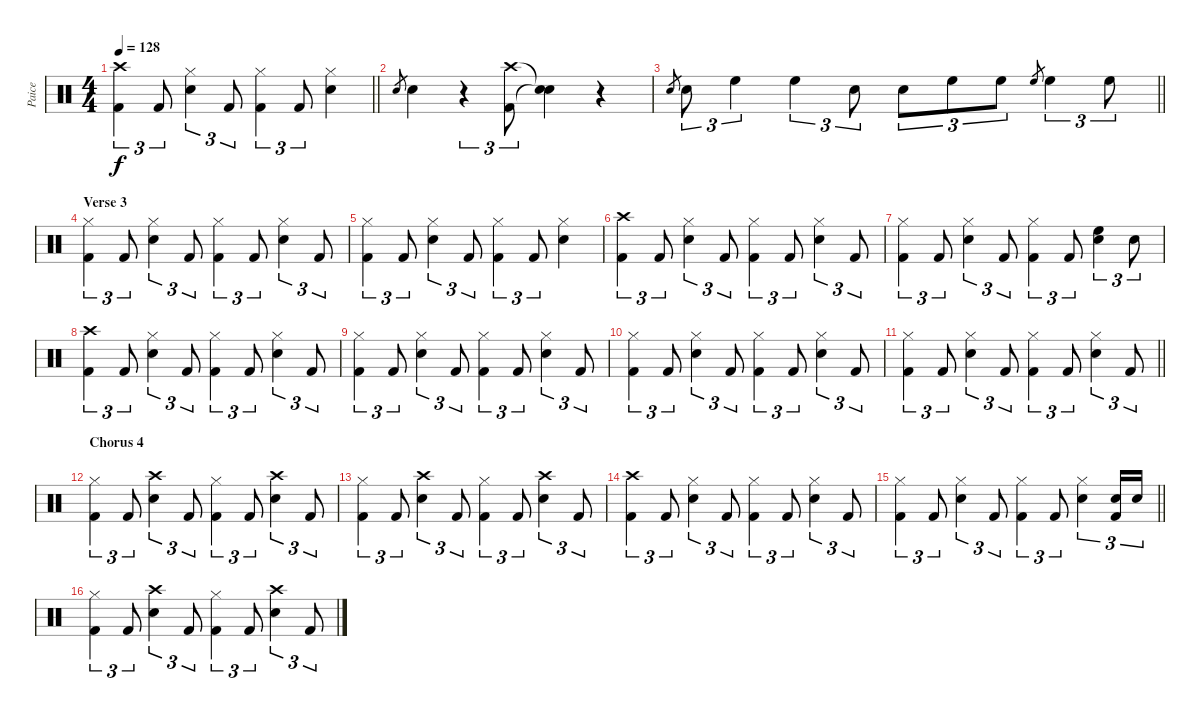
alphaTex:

\track ("Paice" "Paice") {instrument percussion}
\staff {score}
\articulation defaults
\ts (4 4)
\tempo 128
\clef neutral
\barLineRight lightlight
\ks c
("Crash high (hit)" "Kick (hit) 2").4{tu (3 2) dy f} "Kick (hit) 2".8{tu (3 2)} ("Hi-Hat (closed)" "Snare (hit) 2").4{tu (3 2)} "Kick (hit) 2".8{tu (3 2)} ("Hi-Hat (closed)" "Kick (hit) 2").4{tu (3 2)} "Kick (hit) 2".8{tu (3 2)} ("Hi-Hat (closed)" "Snare (hit) 2").4 |
"Snare (hit) 2".8{gr} "Snare (hit) 2".4 r.4{tu (3 2)} ("Crash high (hit)" "Kick (hit) 2").8{tu (3 2)} ("Snare (hit)"{t} "Snare (hit)"{t}).4 r.4 |
\barLineRight lightlight "Snare (hit) 2".8{gr} "Snare (hit) 2".8{tu (3 2)} "High Floor Tom (hit)".4{tu (3 2)} "High Floor Tom (hit)".4{tu (3 2)} "Snare (hit) 2".8{tu (3 2)} "Snare (hit) 2".8{tu (3 2)} "High Floor Tom (hit)".8{tu (3 2)} "High Floor Tom (hit)".8{tu (3 2)} "High Floor Tom (hit)".8{gr} "High Floor Tom (hit)".4{tu (3 2)} "High Floor Tom (hit)".8{tu (3 2)}
|
\section ("" "Verse 3")
("Hi-Hat (closed)" "Kick (hit) 2").4{tu (3 2)} "Kick (hit) 2".8{tu (3 2)} ("Hi-Hat (closed)" "Snare (hit) 2").4{tu (3 2)} "Kick (hit) 2".8{tu (3 2)} ("Hi-Hat (closed)" "Kick (hit) 2").4{tu (3 2)} "Kick (hit) 2".8{tu (3 2)} ("Hi-Hat (closed)" "Snare (hit) 2").4{tu (3 2)} "Kick (hit) 2".8{tu (3 2)} |
("Hi-Hat (closed)" "Kick (hit) 2").4{tu (3 2)} "Kick (hit) 2".8{tu (3 2)} ("Hi-Hat (closed)" "Snare (hit) 2").4{tu (3 2)} "Kick (hit) 2".8{tu (3 2)} ("Hi-Hat (closed)" "Kick (hit) 2").4{tu (3 2)} "Kick (hit) 2".8{tu (3 2)} ("Hi-Hat (closed)" "Snare (hit) 2").4 |
("Crash high (hit)" "Kick (hit) 2").4{tu (3 2)} "Kick (hit) 2".8{tu (3 2)} ("Hi-Hat (closed)" "Snare (hit) 2").4{tu (3 2)} "Kick (hit) 2".8{tu (3 2)} ("Hi-Hat (closed)" "Kick (hit) 2").4{tu (3 2)} "Kick (hit) 2".8{tu (3 2)} ("Hi-Hat (closed)" "Snare (hit) 2").4{tu (3 2)} "Kick (hit) 2".8{tu (3 2)} |
("Hi-Hat (closed)" "Kick (hit) 2").4{tu (3 2)} "Kick (hit) 2".8{tu (3 2)} ("Hi-Hat (closed)" "Snare (hit) 2").4{tu (3 2)} "Kick (hit) 2".8{tu (3 2)} ("Hi-Hat (closed)" "Kick (hit) 2").4{tu (3 2)} "Kick (hit) 2".8{tu (3 2)} ("High Floor Tom (hit)" "Snare (hit) 2").4{tu (3 2)} "Snare (hit) 2".8{tu (3 2)} |
("Crash high (hit)" "Kick (hit) 2").4{tu (3 2)} "Kick (hit) 2".8{tu (3 2)} ("Hi-Hat (closed)" "Snare (hit) 2").4{tu (3 2)} "Kick (hit) 2".8{tu (3 2)} ("Hi-Hat (closed)" "Kick (hit) 2").4{tu (3 2)} "Kick (hit) 2".8{tu (3 2)} ("Hi-Hat (closed)" "Snare (hit) 2").4{tu (3 2)} "Kick (hit) 2".8{tu (3 2)} |
("Hi-Hat (closed)" "Kick (hit) 2").4{tu (3 2)} "Kick (hit) 2".8{tu (3 2)} ("Hi-Hat (closed)" "Snare (hit) 2").4{tu (3 2)} "Kick (hit) 2".8{tu (3 2)} ("Hi-Hat (closed)" "Kick (hit) 2").4{tu (3 2)} "Kick (hit) 2".8{tu (3 2)} ("Hi-Hat (closed)" "Snare (hit) 2").4{tu (3 2)} "Kick (hit) 2".8{tu (3 2)} |
("Hi-Hat (closed)" "Kick (hit) 2").4{tu (3 2)} "Kick (hit) 2".8{tu (3 2)} ("Hi-Hat (closed)" "Snare (hit) 2").4{tu (3 2)} "Kick (hit) 2".8{tu (3 2)} ("Hi-Hat (closed)" "Kick (hit) 2").4{tu (3 2)} "Kick (hit) 2".8{tu (3 2)} ("Hi-Hat (closed)" "Snare (hit) 2").4{tu (3 2)} "Kick (hit) 2".8{tu (3 2)} |
\barLineRight lightlight
("Hi-Hat (closed)" "Kick (hit) 2").4{tu (3 2)} "Kick (hit) 2".8{tu (3 2)} ("Hi-Hat (closed)" "Snare (hit) 2").4{tu (3 2)} "Kick (hit) 2".8{tu (3 2)} ("Hi-Hat (closed)" "Kick (hit) 2").4{tu (3 2)} "Kick (hit) 2".8{tu (3 2)} ("Hi-Hat (closed)" "Snare (hit) 2").4{tu (3 2)} "Kick (hit) 2".8{tu (3 2)} |
\section ("" "Chorus 4")
("Hi-Hat (closed)" "Kick (hit) 2").4{tu (3 2)} "Kick (hit) 2".8{tu (3 2)} ("Crash high (hit)" "Snare (hit) 2").4{tu (3 2)} "Kick (hit) 2".8{tu (3 2)} ("Hi-Hat (closed)" "Kick (hit) 2").4{tu (3 2)} "Kick (hit) 2".8{tu (3 2)} ("Crash high (hit)" "Snare (hit) 2").4{tu (3 2)} "Kick (hit) 2".8{tu (3 2)} |
("Hi-Hat (closed)" "Kick (hit) 2").4{tu (3 2)} "Kick (hit) 2".8{tu (3 2)} ("Crash high (hit)" "Snare (hit) 2").4{tu (3 2)} "Kick (hit) 2".8{tu (3 2)} ("Hi-Hat (closed)" "Kick (hit) 2").4{tu (3 2)} "Kick (hit) 2".8{tu (3 2)} ("Crash high (hit)" "Snare (hit) 2").4{tu (3 2)} "Kick (hit) 2".8{tu (3 2)} |
("Crash high (hit)" "Kick (hit) 2").4{tu (3 2)} "Kick (hit) 2".8{tu (3 2)} ("Hi-Hat (closed)" "Snare (hit) 2").4{tu (3 2)} "Kick (hit) 2".8{tu (3 2)} ("Hi-Hat (closed)" "Kick (hit) 2").4{tu (3 2)} "Kick (hit) 2".8{tu (3 2)} ("Hi-Hat (closed)" "Snare (hit) 2").4{tu (3 2)} "Kick (hit) 2".8{tu (3 2)} |
\barLineRight lightlight
("Hi-Hat (closed)" "Kick (hit) 2").4{tu (3 2)} "Kick (hit) 2".8{tu (3 2)} ("Hi-Hat (closed)" "Snare (hit) 2").4{tu (3 2)} "Kick (hit) 2".8{tu (3 2)} ("Hi-Hat (closed)" "Kick (hit) 2").4{tu (3 2)} "Kick (hit) 2".8{tu (3 2)} ("Hi-Hat (closed)" "Snare (hit) 2").4{tu (3 2)} ("Snare (hit) 2" "Kick (hit) 2").16{tu (3 2)} "Snare (hit) 2".16{tu (3 2)} |
("Hi-Hat (closed)" "Kick (hit) 2").4{tu (3 2)} "Kick (hit) 2".8{tu (3 2)} ("Crash high (hit)" "Snare (hit) 2").4{tu (3 2)} "Kick (hit) 2".8{tu (3 2)} ("Hi-Hat (closed)" "Kick (hit) 2").4{tu (3 2)} "Kick (hit) 2".8{tu (3 2)} ("Crash high (hit)" "Snare (hit) 2").4{tu (3 2)} "Kick (hit) 2".8{tu (3 2)}
